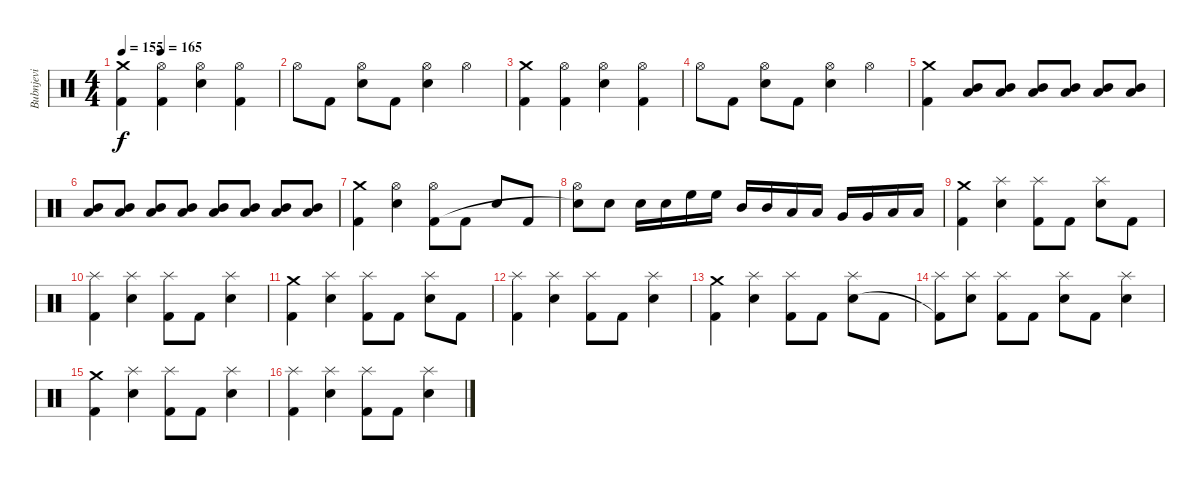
\track ("Bubnjevi" "Bubnjevi") {instrument percussion}
\staff {score}
\articulation defaults
\ts (4 4)
\tempo 155
\tempo (165 0.25)
\clef neutral
\ks c
("Crash medium (hit)" "Kick (hit) 2").4{dy f} ("Hi-Hat (open)" "Kick (hit) 2").4 ("Hi-Hat (open)" "Electric Snare (hit)").4 ("Hi-Hat (open)" "Kick (hit) 2").4 |
"Hi-Hat (open)".8 "Kick (hit) 2".8 ("Hi-Hat (open)" "Electric Snare (hit)").8 "Kick (hit) 2".8 ("Hi-Hat (open)" "Electric Snare (hit)").4 "Hi-Hat (open)".4 |
("Crash medium (hit)" "Kick (hit) 2").4 ("Hi-Hat (open)" "Kick (hit) 2").4 ("Hi-Hat (open)" "Electric Snare (hit)").4 ("Hi-Hat (open)" "Kick (hit) 2").4 |
"Hi-Hat (open)".8 "Kick (hit) 2".8 ("Hi-Hat (open)" "Electric Snare (hit)").8 "Kick (hit) 2".8 ("Hi-Hat (open)" "Electric Snare (hit)").4 "Hi-Hat (open)".4 |
("Crash medium (hit)" "Kick (hit) 2").4 ("Mid Tom (hit)" "Low Tom (hit)").8 ("Mid Tom (hit)" "Low Tom (hit)").8 ("Mid Tom (hit)" "Low Tom (hit)").8 ("Mid Tom (hit)" "Low Tom (hit)").8 ("Mid Tom (hit)" "Low Tom (hit)").8 ("Mid Tom (hit)" "Low Tom (hit)").8 |
("Mid Tom (hit)" "Low Tom (hit)").8 ("Mid Tom (hit)" "Low Tom (hit)").8 ("Mid Tom (hit)" "Low Tom (hit)").8 ("Mid Tom (hit)" "Low Tom (hit)").8 ("Mid Tom (hit)" "Low Tom (hit)").8 ("Mid Tom (hit)" "Low Tom (hit)").8 ("Mid Tom (hit)" "Low Tom (hit)").8 ("Mid Tom (hit)" "Low Tom (hit)").8 |
("Crash medium (hit)" "Kick (hit) 2").4 ("Hi-Hat (open)" "Electric Snare (hit)").4 ("Hi-Hat (open)" "Kick (hit) 2").8 "Kick (hit) 2".8 "Electric Snare (hit)".8 "Kick (hit) 2".8 |
("Hi-Hat (open)" "Snare (hit)"{t}).8 "Electric Snare (hit)".8 "Electric Snare (hit)".16 "Electric Snare (hit)".16 "High Floor Tom (hit)".16 "High Floor Tom (hit)".16 "Mid Tom (hit)".16 "Mid Tom (hit)".16 "Low Tom (hit)".16 "Low Tom (hit)".16 "Very Low Tom (hit)".16 "Very Low Tom (hit)".16 "Low Floor Tom (hit)".16 "Low Floor Tom (hit)".16 |
("Crash medium (hit)" "Kick (hit) 2").4 ("Splash (hit)" "Electric Snare (hit)").4 ("Splash (hit)" "Kick (hit) 2").8 "Kick (hit) 2".8 ("Splash (hit)" "Electric Snare (hit)").8 "Kick (hit) 2".8 |
("Splash (hit)" "Kick (hit) 2").4 ("Splash (hit)" "Electric Snare (hit)").4 ("Splash (hit)" "Kick (hit) 2").8 "Kick (hit) 2".8 ("Splash (hit)" "Electric Snare (hit)").4 |
("Crash medium (hit)" "Kick (hit) 2").4 ("Splash (hit)" "Electric Snare (hit)").4 ("Splash (hit)" "Kick (hit) 2").8 "Kick (hit) 2".8 ("Splash (hit)" "Electric Snare (hit)").8 "Kick (hit) 2".8 |
("Splash (hit)" "Kick (hit) 2").4 ("Splash (hit)" "Electric Snare (hit)").4 ("Splash (hit)" "Kick (hit) 2").8 "Kick (hit) 2".8 ("Splash (hit)" "Electric Snare (hit)").4 |
("Crash medium (hit)" "Kick (hit) 2").4 ("Splash (hit)" "Electric Snare (hit)").4 ("Splash (hit)" "Kick (hit) 2").8 "Kick (hit) 2".8 ("Splash (hit)" "Electric Snare (hit)").8 "Kick (hit) 2".8 |
("Splash (hit)" "Kick (hit) 2"{t}).8 ("Splash (hit)" "Electric Snare (hit)").8 ("Splash (hit)" "Kick (hit) 2").8 "Kick (hit) 2".8 ("Splash (hit)" "Electric Snare (hit)").8 "Kick (hit) 2".8 ("Splash (hit)" "Electric Snare (hit)").4 |
("Crash medium (hit)" "Kick (hit) 2").4 ("Splash (hit)" "Electric Snare (hit)").4 ("Splash (hit)" "Kick (hit) 2").8 "Kick (hit) 2".8 ("Splash (hit)" "Electric Snare (hit)").4 |
("Splash (hit)" "Kick (hit) 2").4 ("Splash (hit)" "Electric Snare (hit)").4 ("Splash (hit)" "Kick (hit) 2").8 "Kick (hit) 2".8 ("Splash (hit)" "Electric Snare (hit)").4
